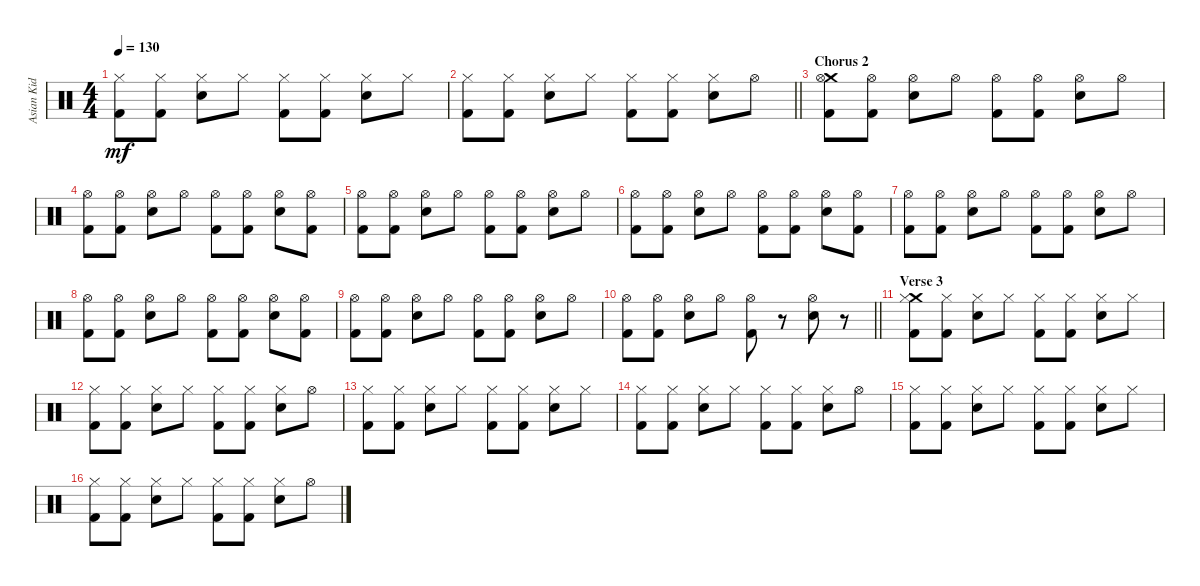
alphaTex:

\track ("Asian Kid" "Asian Kid") {instrument percussion}
\staff {score}
\articulation defaults
\ts (4 4)
\tempo 130
\clef neutral
\ks c
("Hi-Hat (closed)" "Kick (hit) 2").8{dy mf} ("Hi-Hat (closed)" "Kick (hit) 2").8 ("Hi-Hat (closed)" "Electric Snare (hit)").8 "Hi-Hat (closed)".8 ("Hi-Hat (closed)" "Kick (hit) 2").8 ("Hi-Hat (closed)" "Kick (hit) 2").8 ("Hi-Hat (closed)" "Electric Snare (hit)").8 "Hi-Hat (closed)".8 |
\barLineRight lightlight
("Hi-Hat (closed)" "Kick (hit) 2").8 ("Hi-Hat (closed)" "Kick (hit) 2").8 ("Hi-Hat (closed)" "Electric Snare (hit)").8 "Hi-Hat (closed)".8 ("Hi-Hat (closed)" "Kick (hit) 2").8 ("Hi-Hat (closed)" "Kick (hit) 2").8 ("Hi-Hat (closed)" "Electric Snare (hit)").8 "Hi-Hat (open)".8 |
\section ("" "Chorus 2")
("Crash medium (hit)" "Hi-Hat (open)" "Kick (hit) 2").8 ("Hi-Hat (open)" "Kick (hit) 2").8 ("Hi-Hat (open)" "Electric Snare (hit)").8 "Hi-Hat (open)".8 ("Hi-Hat (open)" "Kick (hit) 2").8 ("Hi-Hat (open)" "Kick (hit) 2").8 ("Hi-Hat (open)" "Electric Snare (hit)").8 "Hi-Hat (open)".8 |
("Hi-Hat (open)" "Kick (hit) 2").8 ("Hi-Hat (open)" "Kick (hit) 2").8 ("Hi-Hat (open)" "Electric Snare (hit)").8 "Hi-Hat (open)".8 ("Hi-Hat (open)" "Kick (hit) 2").8 ("Hi-Hat (open)" "Kick (hit) 2").8 ("Hi-Hat (open)" "Electric Snare (hit)").8 ("Hi-Hat (open)" "Kick (hit) 2").8 |
("Hi-Hat (open)" "Kick (hit) 2").8 ("Hi-Hat (open)" "Kick (hit) 2").8 ("Hi-Hat (open)" "Electric Snare (hit)").8 "Hi-Hat (open)".8 ("Hi-Hat (open)" "Kick (hit) 2").8 ("Hi-Hat (open)" "Kick (hit) 2").8 ("Hi-Hat (open)" "Electric Snare (hit)").8 "Hi-Hat (open)".8 |
("Hi-Hat (open)" "Kick (hit) 2").8 ("Hi-Hat (open)" "Kick (hit) 2").8 ("Hi-Hat (open)" "Electric Snare (hit)").8 "Hi-Hat (open)".8 ("Hi-Hat (open)" "Kick (hit) 2").8 ("Hi-Hat (open)" "Kick (hit) 2").8 ("Hi-Hat (open)" "Electric Snare (hit)").8 ("Hi-Hat (open)" "Kick (hit) 2").8 |
("Hi-Hat (open)" "Kick (hit) 2").8 ("Hi-Hat (open)" "Kick (hit) 2").8 ("Hi-Hat (open)" "Electric Snare (hit)").8 "Hi-Hat (open)".8 ("Hi-Hat (open)" "Kick (hit) 2").8 ("Hi-Hat (open)" "Kick (hit) 2").8 ("Hi-Hat (open)" "Electric Snare (hit)").8 "Hi-Hat (open)".8 |
("Hi-Hat (open)" "Kick (hit) 2").8 ("Hi-Hat (open)" "Kick (hit) 2").8 ("Hi-Hat (open)" "Electric Snare (hit)").8 "Hi-Hat (open)".8 ("Hi-Hat (open)" "Kick (hit) 2").8 ("Hi-Hat (open)" "Kick (hit) 2").8 ("Hi-Hat (open)" "Electric Snare (hit)").8 ("Hi-Hat (open)" "Kick (hit) 2").8 |
("Hi-Hat (open)" "Kick (hit) 2").8 ("Hi-Hat (open)" "Kick (hit) 2").8 ("Hi-Hat (open)" "Electric Snare (hit)").8 "Hi-Hat (open)".8 ("Hi-Hat (open)" "Kick (hit) 2").8 ("Hi-Hat (open)" "Kick (hit) 2").8 ("Hi-Hat (open)" "Electric Snare (hit)").8 "Hi-Hat (open)".8 |
\barLineRight lightlight
("Hi-Hat (open)" "Kick (hit) 2").8 ("Hi-Hat (open)" "Kick (hit) 2").8 ("Hi-Hat (open)" "Electric Snare (hit)").8 "Hi-Hat (open)".8 ("Hi-Hat (open)" "Kick (hit) 2").8 r.8 ("Hi-Hat (open)" "Electric Snare (hit)").8 r.8 |
\section ("" "Verse 3")
("Crash medium (hit)" "Hi-Hat (closed)" "Kick (hit) 2").8 ("Hi-Hat (closed)" "Kick (hit) 2").8 ("Hi-Hat (closed)" "Electric Snare (hit)").8 "Hi-Hat (closed)".8 ("Hi-Hat (closed)" "Kick (hit) 2").8 ("Hi-Hat (closed)" "Kick (hit) 2").8 ("Hi-Hat (closed)" "Electric Snare (hit)").8 "Hi-Hat (closed)".8 |
("Hi-Hat (closed)" "Kick (hit) 2").8 ("Hi-Hat (closed)" "Kick (hit) 2").8 ("Hi-Hat (closed)" "Electric Snare (hit)").8 "Hi-Hat (closed)".8 ("Hi-Hat (closed)" "Kick (hit) 2").8 ("Hi-Hat (closed)" "Kick (hit) 2").8 ("Hi-Hat (closed)" "Electric Snare (hit)").8 "Hi-Hat (open)".8 |
("Hi-Hat (closed)" "Kick (hit) 2").8 ("Hi-Hat (closed)" "Kick (hit) 2").8 ("Hi-Hat (closed)" "Electric Snare (hit)").8 "Hi-Hat (closed)".8 ("Hi-Hat (closed)" "Kick (hit) 2").8 ("Hi-Hat (closed)" "Kick (hit) 2").8 ("Hi-Hat (closed)" "Electric Snare (hit)").8 "Hi-Hat (closed)".8 |
("Hi-Hat (closed)" "Kick (hit) 2").8 ("Hi-Hat (closed)" "Kick (hit) 2").8 ("Hi-Hat (closed)" "Electric Snare (hit)").8 "Hi-Hat (closed)".8 ("Hi-Hat (closed)" "Kick (hit) 2").8 ("Hi-Hat (closed)" "Kick (hit) 2").8 ("Hi-Hat (closed)" "Electric Snare (hit)").8 "Hi-Hat (open)".8 |
("Hi-Hat (closed)" "Kick (hit) 2").8 ("Hi-Hat (closed)" "Kick (hit) 2").8 ("Hi-Hat (closed)" "Electric Snare (hit)").8 "Hi-Hat (closed)".8 ("Hi-Hat (closed)" "Kick (hit) 2").8 ("Hi-Hat (closed)" "Kick (hit) 2").8 ("Hi-Hat (closed)" "Electric Snare (hit)").8 "Hi-Hat (closed)".8 |
("Hi-Hat (closed)" "Kick (hit) 2").8 ("Hi-Hat (closed)" "Kick (hit) 2").8 ("Hi-Hat (closed)" "Electric Snare (hit)").8 "Hi-Hat (closed)".8 ("Hi-Hat (closed)" "Kick (hit) 2").8 ("Hi-Hat (closed)" "Kick (hit) 2").8 ("Hi-Hat (closed)" "Electric Snare (hit)").8 "Hi-Hat (open)".8
